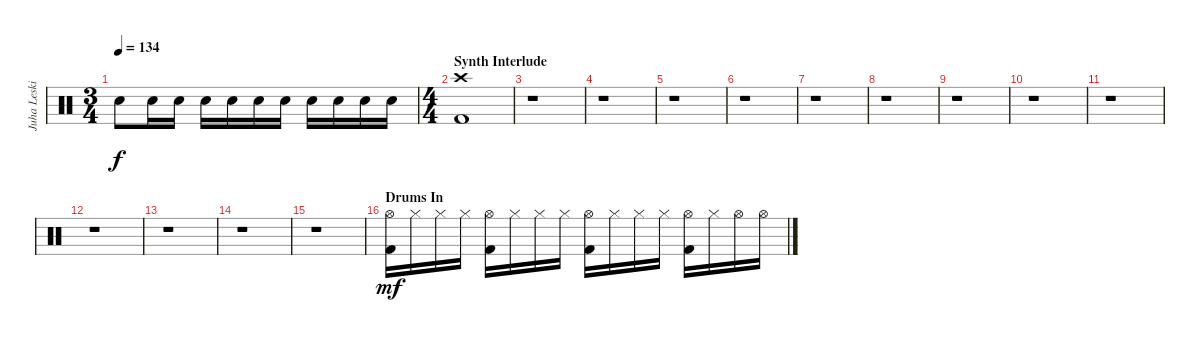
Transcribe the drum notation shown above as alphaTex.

\track ("Juha Leskinen - Drums" "Juha Leski") {instrument percussion}
\staff {score}
\articulation defaults
\ts (3 4)
\tempo 134
\clef neutral
\ks c "Electric Snare (hit)".8{dy f} "Electric Snare (hit)".16 "Electric Snare (hit)".16 "Electric Snare (hit)".16 "Electric Snare (hit)".16 "Electric Snare (hit)".16 "Electric Snare (hit)".16 "Electric Snare (hit)".16 "Electric Snare (hit)".16 "Electric Snare (hit)".16 "Electric Snare (hit)".16
|
\ts (4 4)
\section ("" "Synth Interlude")
("Crash high (hit)" "Kick (hit) 2").1 |
r.1 |
r.1 |
r.1 |
r.1 |
r.1 |
r.1 |
r.1 |
r.1 |
r.1 |
r.1 |
r.1 |
r.1 |
r.1 |
\section ("" "Drums In")
("Hi-Hat (open)" "Kick (hit) 2").16{dy mf} "Hi-Hat (closed)".16 "Hi-Hat (closed)".16 "Hi-Hat (closed)".16 ("Hi-Hat (open)" "Kick (hit) 2").16 "Hi-Hat (closed)".16 "Hi-Hat (closed)".16 "Hi-Hat (closed)".16 ("Hi-Hat (open)" "Kick (hit) 2").16 "Hi-Hat (closed)".16 "Hi-Hat (closed)".16 "Hi-Hat (closed)".16 ("Hi-Hat (open)" "Kick (hit) 2").16 "Hi-Hat (closed)".16 "Hi-Hat (open)".16 "Hi-Hat (open)".16
